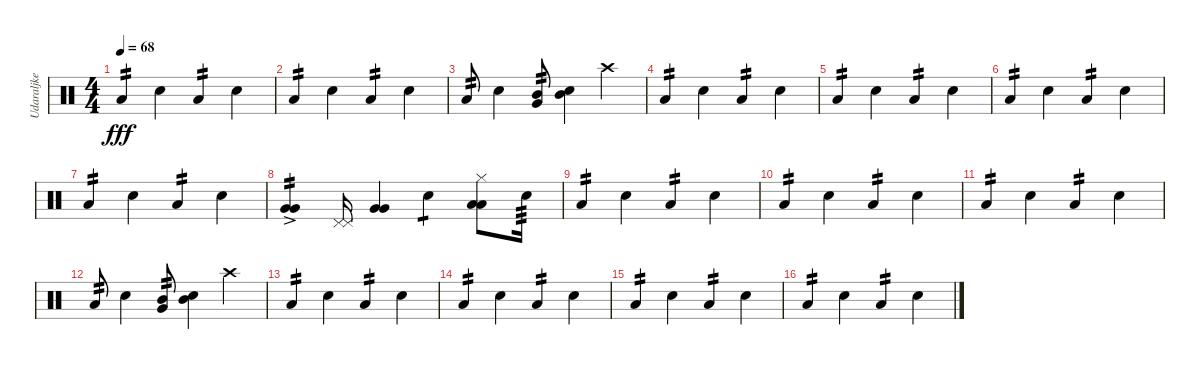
\track ("Udaraljke" "Udaraljke") {instrument percussion}
\staff {score}
\articulation defaults
\ts (4 4)
\tempo 68
\clef neutral
\ks c "Low Tom (hit)".4{tp 2 dy fff} "Electric Snare (hit)".4 "Low Tom (hit)".4{tp 2} "Electric Snare (hit)".4
|
"Low Tom (hit)".4{tp 2} "Electric Snare (hit)".4 "Low Tom (hit)".4{tp 2} "Electric Snare (hit)".4 |
"Low Tom (hit)".8{tp 2} "Electric Snare (hit)".4 ("Mid Tom (hit)" "Very Low Tom (hit)").8{tp 2} ("Mid Tom (hit)" "Electric Snare (hit)").4 "Crash high (hit)".4 |
"Low Tom (hit)".4{tp 2} "Electric Snare (hit)".4 "Low Tom (hit)".4{tp 2} "Electric Snare (hit)".4 |
"Low Tom (hit)".4{tp 2} "Electric Snare (hit)".4 "Low Tom (hit)".4{tp 2} "Electric Snare (hit)".4 |
"Low Tom (hit)".4{tp 2} "Electric Snare (hit)".4 "Low Tom (hit)".4{tp 2} "Electric Snare (hit)".4 |
"Low Tom (hit)".4{tp 2} "Electric Snare (hit)".4 "Low Tom (hit)".4{tp 2} "Electric Snare (hit)".4 |
("Very Low Tom (hit)"{ac} "Very Low Tom (hit)").4{tp 2} ("Pedal Hi-Hat (hit)" "Pedal Hi-Hat (hit)").16 ("Very Low Tom (hit)" "Very Low Tom (hit)").4 "Electric Snare (hit)".4{tp 1} ("Hi-Hat (closed)" "Low Tom (hit)" "Low Tom (hit)").8 "Electric Snare (hit)".16{tp 3} |
"Low Tom (hit)".4{tp 2} "Electric Snare (hit)".4 "Low Tom (hit)".4{tp 2} "Electric Snare (hit)".4 |
"Low Tom (hit)".4{tp 2} "Electric Snare (hit)".4 "Low Tom (hit)".4{tp 2} "Electric Snare (hit)".4 |
"Low Tom (hit)".4{tp 2} "Electric Snare (hit)".4 "Low Tom (hit)".4{tp 2} "Electric Snare (hit)".4 |
"Low Tom (hit)".8{tp 2} "Electric Snare (hit)".4 ("Mid Tom (hit)" "Very Low Tom (hit)").8{tp 2} ("Mid Tom (hit)" "Electric Snare (hit)").4 "Crash high (hit)".4 |
"Low Tom (hit)".4{tp 2} "Electric Snare (hit)".4 "Low Tom (hit)".4{tp 2} "Electric Snare (hit)".4 |
"Low Tom (hit)".4{tp 2} "Electric Snare (hit)".4 "Low Tom (hit)".4{tp 2} "Electric Snare (hit)".4 |
"Low Tom (hit)".4{tp 2} "Electric Snare (hit)".4 "Low Tom (hit)".4{tp 2} "Electric Snare (hit)".4 |
"Low Tom (hit)".4{tp 2} "Electric Snare (hit)".4 "Low Tom (hit)".4{tp 2} "Electric Snare (hit)".4
